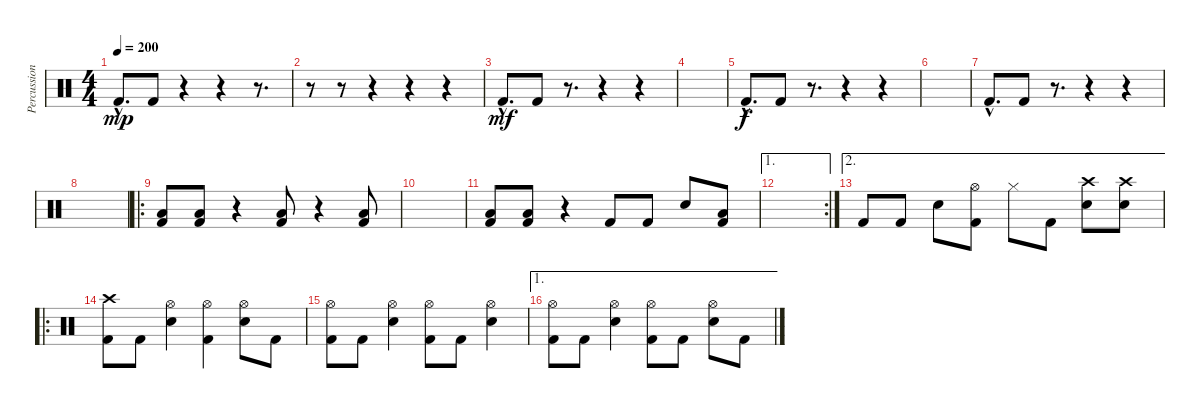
\track ("Percussions" "Percussion") {instrument percussion}
\staff {score}
\articulation defaults
\ts (4 4)
\tempo 200
\clef neutral
\ks c "Kick (hit) 2"{hac}.8{d dy mp} "Kick (hit) 2".8
r.4 r.4 r.8{d} |
r.8 r.8 r.4 r.4 r.4 |
"Kick (hit) 2"{hac}.8{d dy mf} "Kick (hit) 2".8 r.8{d} r.4 r.4 |
|
"Kick (hit) 2"{hac}.8{d dy f} "Kick (hit) 2".8 r.8{d} r.4 r.4 |
|
"Kick (hit) 2"{hac}.8{d} "Kick (hit) 2".8 r.8{d} r.4 r.4 |
|
\ro
("Low Floor Tom (hit)" "Kick (hit) 2").8 ("Low Floor Tom (hit)" "Kick (hit) 2").8 r.4 ("Low Floor Tom (hit)" "Kick (hit) 2").8 r.4 ("Low Floor Tom (hit)" "Kick (hit) 2").8 |
|
("Low Floor Tom (hit)" "Kick (hit) 2").8 ("Low Floor Tom (hit)" "Kick (hit) 2").8 r.4 "Kick (hit) 2".8 "Kick (hit) 2".8 "Snare (hit) 2".8 ("Low Floor Tom (hit)" "Kick (hit) 2").8 |
\ae 1
\rc 2
|
\ae 2 "Kick (hit) 2".8 "Kick (hit) 2".8 "Snare (hit) 2".8
("Hi-Hat (open)" "Kick (hit) 2").8 "Hi-Hat (closed)".8 "Kick (hit) 2".8 ("Crash high (hit)" "Snare (hit) 2").8 ("Crash high (hit)" "Snare (hit) 2").8 |
\ro
("Crash high (hit)" "Kick (hit) 2").8 "Kick (hit) 2".8 ("Hi-Hat (open)" "Snare (hit) 2").4 ("Hi-Hat (open)" "Kick (hit) 2").4 ("Hi-Hat (open)" "Snare (hit) 2").8 "Kick (hit) 2".8 |
("Hi-Hat (open)" "Kick (hit) 2").8 "Kick (hit) 2".8 ("Hi-Hat (open)" "Snare (hit) 2").4 ("Hi-Hat (open)" "Kick (hit) 2").8 "Kick (hit) 2".8 ("Hi-Hat (open)" "Snare (hit) 2").4 |
\ae 1
("Hi-Hat (open)" "Kick (hit) 2").8 "Kick (hit) 2".8 ("Hi-Hat (open)" "Snare (hit) 2").4 ("Hi-Hat (open)" "Kick (hit) 2").8 "Kick (hit) 2".8 ("Hi-Hat (open)" "Snare (hit) 2").8 "Kick (hit) 2".8
